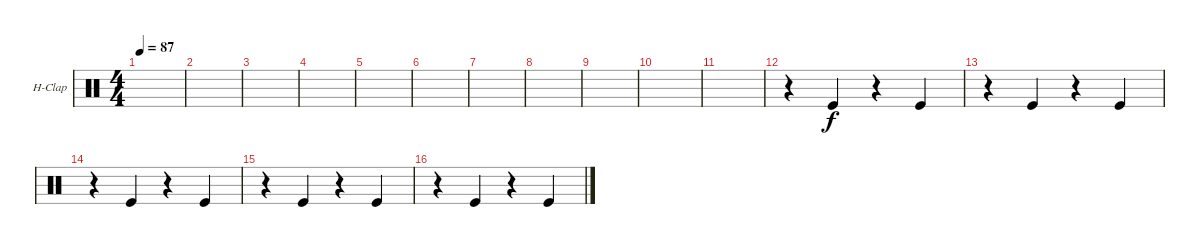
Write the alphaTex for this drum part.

\defaultSystemsLayout 4
\bracketExtendMode groupsimilarinstruments
\firstSystemTrackNameOrientation horizontal
\otherSystemsTrackNameOrientation horizontal
\track ("Hand Clap" "H-Clap") {instrument percussion}
\staff {score}
\articulation defaults
\ts (4 4)
\tempo 87
\clef neutral
\scale
0.333333
\ks c
|
\scale
0.333333 |
\scale
0.333333 |
\scale
0.333333 |
\scale
0.333333 |
\scale
0.333333 |
\scale
0.333333 |
\scale
0.333333 |
\scale
0.333333 |
\scale
0.333333 |
\scale
0.333333 |
\scale
0.333333 r.4 "Kick (hit)".4 r.4 "Kick (hit)".4 |
\scale
0.333333 r.4 "Kick (hit)".4 r.4 "Kick (hit)".4 |
\scale
0.333333 r.4 "Kick (hit)".4 r.4 "Kick (hit)".4 |
\scale
0.333333 r.4 "Kick (hit)".4 r.4 "Kick (hit)".4 |
\scale
0.333333 r.4 "Kick (hit)".4 r.4 "Kick (hit)".4
